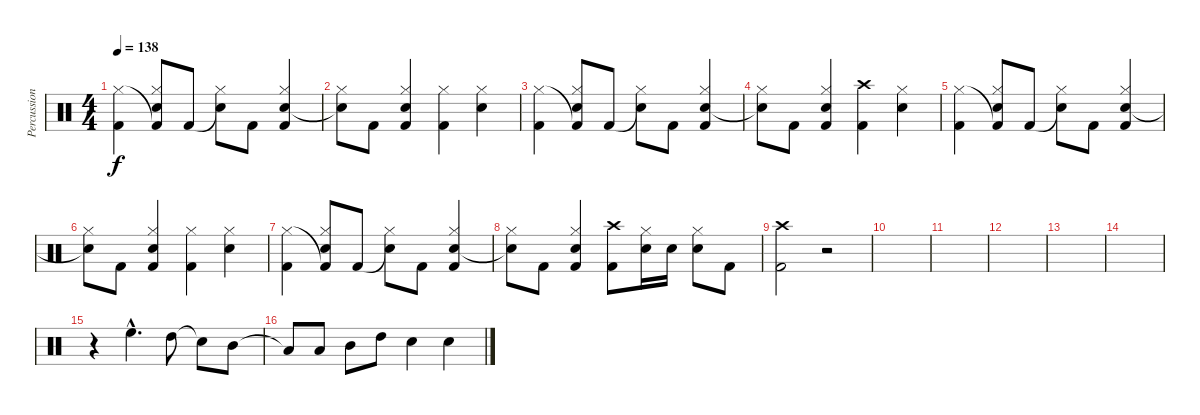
\track ("Percussion" "Percussion") {instrument percussion}
\staff {score}
\articulation defaults
\ts (4 4)
\tempo 138
\clef neutral
\ks c
("Kick (hit) 2" "Hi-Hat (closed)").4{dy f} ("Snare (hit) 2" "Kick (hit) 2"{t} "Hi-Hat (closed)").8 "Kick (hit) 2".8 ("Snare (hit)"{t} "Hi-Hat (closed)").8 "Kick (hit) 2".8 ("Snare (hit) 2" "Kick (hit) 2" "Hi-Hat (closed)").4 |
("Snare (hit)"{t} "Hi-Hat (closed)").8 "Kick (hit) 2".8 ("Snare (hit) 2" "Kick (hit) 2" "Hi-Hat (closed)").4 ("Kick (hit) 2" "Hi-Hat (closed)").4 ("Snare (hit) 2" "Hi-Hat (closed)").4 |
("Kick (hit) 2" "Hi-Hat (closed)").4 ("Snare (hit) 2" "Kick (hit) 2"{t} "Hi-Hat (closed)").8 "Kick (hit) 2".8 ("Snare (hit)"{t} "Hi-Hat (closed)").8 "Kick (hit) 2".8 ("Snare (hit) 2" "Kick (hit) 2" "Hi-Hat (closed)").4 |
("Snare (hit)"{t} "Hi-Hat (closed)").8 "Kick (hit) 2".8 ("Snare (hit) 2" "Kick (hit) 2" "Hi-Hat (closed)").4 ("Kick (hit) 2" "Crash high (hit)").4 ("Snare (hit) 2" "Hi-Hat (closed)").4 |
("Kick (hit) 2" "Hi-Hat (closed)").4 ("Snare (hit) 2" "Kick (hit) 2"{t} "Hi-Hat (closed)").8 "Kick (hit) 2".8 ("Snare (hit)"{t} "Hi-Hat (closed)").8 "Kick (hit) 2".8 ("Snare (hit) 2" "Kick (hit) 2" "Hi-Hat (closed)").4 |
("Snare (hit)"{t} "Hi-Hat (closed)").8 "Kick (hit) 2".8 ("Snare (hit) 2" "Kick (hit) 2" "Hi-Hat (closed)").4 ("Kick (hit) 2" "Hi-Hat (closed)").4 ("Snare (hit) 2" "Hi-Hat (closed)").4 |
("Kick (hit) 2" "Hi-Hat (closed)").4 ("Snare (hit) 2" "Kick (hit) 2"{t} "Hi-Hat (closed)").8 "Kick (hit) 2".8 ("Snare (hit)"{t} "Hi-Hat (closed)").8 "Kick (hit) 2".8 ("Snare (hit) 2" "Kick (hit) 2" "Hi-Hat (closed)").4 |
("Snare (hit)"{t} "Hi-Hat (closed)").8 "Kick (hit) 2".8 ("Snare (hit) 2" "Kick (hit) 2" "Hi-Hat (closed)").4 ("Kick (hit) 2" "Crash high (hit)").8 ("Electric Snare (hit)" "Hi-Hat (closed)").16 "Electric Snare (hit)".16 ("Electric Snare (hit)" "Hi-Hat (closed)").8 "Kick (hit) 2".8 |
("Kick (hit) 2" "Crash high (hit)").2 r.2 |
|
|
|
|
|
r.4 "High Floor Tom (hit)"{hac}.4{d} "High Tom (hit)".8 "Snare (hit)"{t}.8 "Mid Tom (hit)".8 |
"Low Tom (hit)"{t}.8 "Low Tom (hit)".8 "Mid Tom (hit)".8 "High Tom (hit)".8 "Snare (hit) 2".4 "Snare (hit) 2".4
